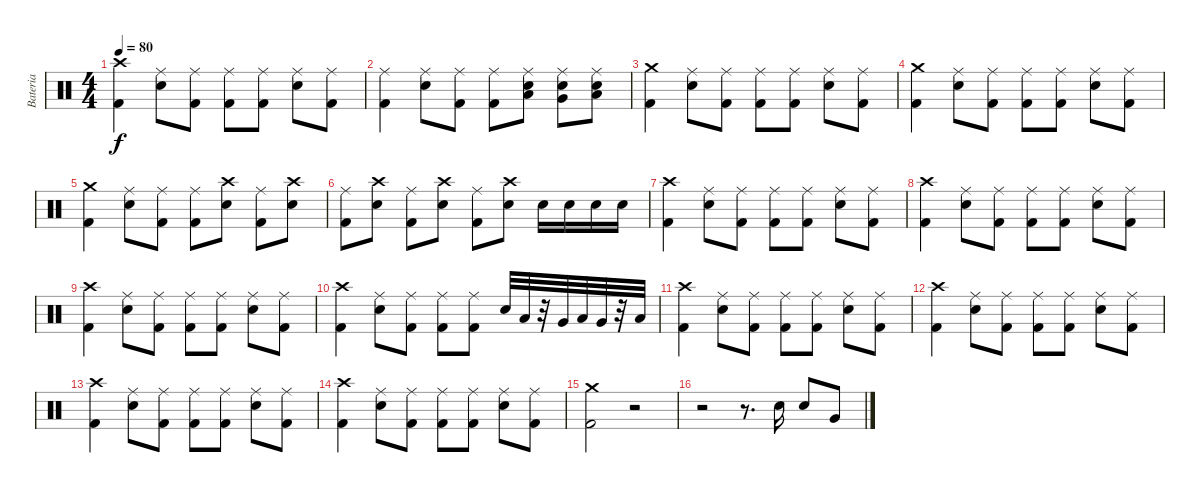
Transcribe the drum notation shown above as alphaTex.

\track ("Bateria" "Bateria") {instrument percussion}
\staff {score}
\articulation defaults
\ts (4 4)
\tempo 80
\clef neutral
\ks c
("Crash high (hit)" "Kick (hit) 2").4{dy f} ("Ride (middle)" "Snare (hit) 2").8 ("Ride (middle)" "Kick (hit) 2").8 ("Ride (middle)" "Kick (hit) 2").8 ("Ride (middle)" "Kick (hit) 2").8 ("Ride (middle)" "Snare (hit) 2").8 ("Ride (middle)" "Kick (hit) 2").8 |
("Ride (middle)" "Kick (hit) 2").4 ("Ride (middle)" "Snare (hit) 2").8 ("Ride (middle)" "Kick (hit) 2").8 ("Ride (middle)" "Kick (hit) 2").8 ("Ride (middle)" "Snare (hit) 2" "Low Tom (hit)").8 ("Ride (middle)" "Snare (hit) 2" "Very Low Tom (hit)").8 ("Ride (middle)" "Snare (hit) 2" "Low Floor Tom (hit)").8 |
("Crash medium (hit)" "Kick (hit) 2").4 ("Ride (middle)" "Snare (hit) 2").8 ("Ride (middle)" "Kick (hit) 2").8 ("Ride (middle)" "Kick (hit) 2").8 ("Ride (middle)" "Kick (hit) 2").8 ("Ride (middle)" "Snare (hit) 2").8 ("Ride (middle)" "Kick (hit) 2").8 |
("Crash medium (hit)" "Kick (hit) 2").4 ("Ride (middle)" "Snare (hit) 2").8 ("Ride (middle)" "Kick (hit) 2").8 ("Ride (middle)" "Kick (hit) 2").8 ("Ride (middle)" "Kick (hit) 2").8 ("Ride (middle)" "Snare (hit) 2").8 ("Ride (middle)" "Kick (hit) 2").8 |
("Crash medium (hit)" "Kick (hit) 2").4 ("Ride (middle)" "Snare (hit) 2").8 ("Ride (middle)" "Kick (hit) 2").8 ("Ride (middle)" "Kick (hit) 2").8 ("Crash high (hit)" "Snare (hit) 2").8 ("Ride (middle)" "Kick (hit) 2").8 ("Crash high (hit)" "Snare (hit) 2").8 |
("Ride (middle)" "Kick (hit) 2").8 ("Crash high (hit)" "Snare (hit) 2").8 ("Ride (middle)" "Kick (hit) 2").8 ("Crash high (hit)" "Snare (hit) 2").8 ("Ride (middle)" "Kick (hit) 2").8 ("Crash high (hit)" "Snare (hit) 2").8 "Snare (hit) 2".16 "Snare (hit) 2".16 "Snare (hit) 2".16 "Snare (hit) 2".16 |
("Crash high (hit)" "Kick (hit) 2").4 ("Ride (middle)" "Snare (hit) 2").8 ("Ride (middle)" "Kick (hit) 2").8 ("Ride (middle)" "Kick (hit) 2").8 ("Ride (middle)" "Kick (hit) 2").8 ("Ride (middle)" "Snare (hit) 2").8 ("Ride (middle)" "Kick (hit) 2").8 |
("Crash high (hit)" "Kick (hit) 2").4 ("Ride (middle)" "Snare (hit) 2").8 ("Ride (middle)" "Kick (hit) 2").8 ("Ride (middle)" "Kick (hit) 2").8 ("Ride (middle)" "Kick (hit) 2").8 ("Ride (middle)" "Snare (hit) 2").8 ("Ride (middle)" "Kick (hit) 2").8 |
("Crash high (hit)" "Kick (hit) 2").4 ("Ride (middle)" "Snare (hit) 2").8 ("Ride (middle)" "Kick (hit) 2").8 ("Ride (middle)" "Kick (hit) 2").8 ("Ride (middle)" "Kick (hit) 2").8 ("Ride (middle)" "Snare (hit) 2").8 ("Ride (middle)" "Kick (hit) 2").8 |
("Crash high (hit)" "Kick (hit) 2").4 ("Ride (middle)" "Snare (hit) 2").8 ("Ride (middle)" "Kick (hit) 2").8 ("Ride (middle)" "Kick (hit) 2").8 ("Ride (middle)" "Kick (hit) 2").8 "Snare (hit) 2".32 "Low Tom (hit)".32 r.32 "Very Low Tom (hit)".32 "Low Tom (hit)".32 "Very Low Tom (hit)".32 r.32 "Low Floor Tom (hit)".32 |
("Crash high (hit)" "Kick (hit) 2").4 ("Ride (middle)" "Snare (hit) 2").8 ("Ride (middle)" "Kick (hit) 2").8 ("Ride (middle)" "Kick (hit) 2").8 ("Ride (middle)" "Kick (hit) 2").8 ("Ride (middle)" "Snare (hit) 2").8 ("Ride (middle)" "Kick (hit) 2").8 |
("Crash high (hit)" "Kick (hit) 2").4 ("Ride (middle)" "Snare (hit) 2").8 ("Ride (middle)" "Kick (hit) 2").8 ("Ride (middle)" "Kick (hit) 2").8 ("Ride (middle)" "Kick (hit) 2").8 ("Ride (middle)" "Snare (hit) 2").8 ("Ride (middle)" "Kick (hit) 2").8 |
("Crash high (hit)" "Kick (hit) 2").4 ("Ride (middle)" "Snare (hit) 2").8 ("Ride (middle)" "Kick (hit) 2").8 ("Ride (middle)" "Kick (hit) 2").8 ("Ride (middle)" "Kick (hit) 2").8 ("Ride (middle)" "Snare (hit) 2").8 ("Ride (middle)" "Kick (hit) 2").8 |
("Crash high (hit)" "Kick (hit) 2").4 ("Ride (middle)" "Snare (hit) 2").8 ("Ride (middle)" "Kick (hit) 2").8 ("Ride (middle)" "Kick (hit) 2").8 ("Ride (middle)" "Kick (hit) 2").8 ("Ride (middle)" "Snare (hit) 2").8 ("Ride (middle)" "Kick (hit) 2").8 |
("Crash medium (hit)" "Kick (hit) 2").2 r.2 |
r.2 r.8{d} "Snare (hit) 2".16 "Snare (hit) 2".8 "Very Low Tom (hit)".8
